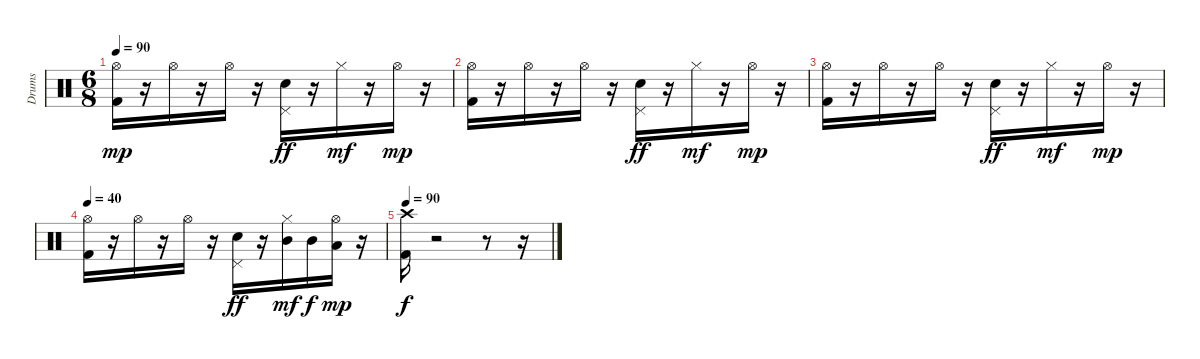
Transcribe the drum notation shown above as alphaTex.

\track ("Drums" "Drums") {instrument percussion}
\staff {score}
\articulation defaults
\ts (6 8)
\tempo 90
\clef neutral
\ks c
("Hi-Hat (open)" "Kick (hit) 2").16{dy mp} r.16 "Hi-Hat (open)".16 r.16 "Hi-Hat (open)".16 r.16 ("Pedal Hi-Hat (hit)" "Snare (hit) 2").16{dy ff} r.16 "Hi-Hat (closed)".16{dy mf} r.16 "Hi-Hat (open)".16{dy mp} r.16 |
("Hi-Hat (open)" "Kick (hit) 2").16 r.16 "Hi-Hat (open)".16 r.16 "Hi-Hat (open)".16 r.16 ("Pedal Hi-Hat (hit)" "Snare (hit) 2").16{dy ff} r.16 "Hi-Hat (closed)".16{dy mf} r.16 "Hi-Hat (open)".16{dy mp} r.16 |
("Hi-Hat (open)" "Kick (hit) 2").16 r.16 "Hi-Hat (open)".16 r.16 "Hi-Hat (open)".16 r.16 ("Pedal Hi-Hat (hit)" "Snare (hit) 2").16{dy ff} r.16 "Hi-Hat (closed)".16{dy mf} r.16 "Hi-Hat (open)".16{dy mp} r.16 |
\tempo 40
("Hi-Hat (open)" "Kick (hit) 2").16 r.16 "Hi-Hat (open)".16 r.16 "Hi-Hat (open)".16 r.16 ("Pedal Hi-Hat (hit)" "Snare (hit) 2").16{dy ff} r.16 ("Hi-Hat (closed)" "Mid Tom (hit)").16{dy mf} "Mid Tom (hit)".16{dy f} ("Hi-Hat (open)" "Low Tom (hit)").16{dy mp} r.16 |
\tempo 90
("Crash high (hit)" "Kick (hit) 2").16{dy f} r.2 r.8 r.16
